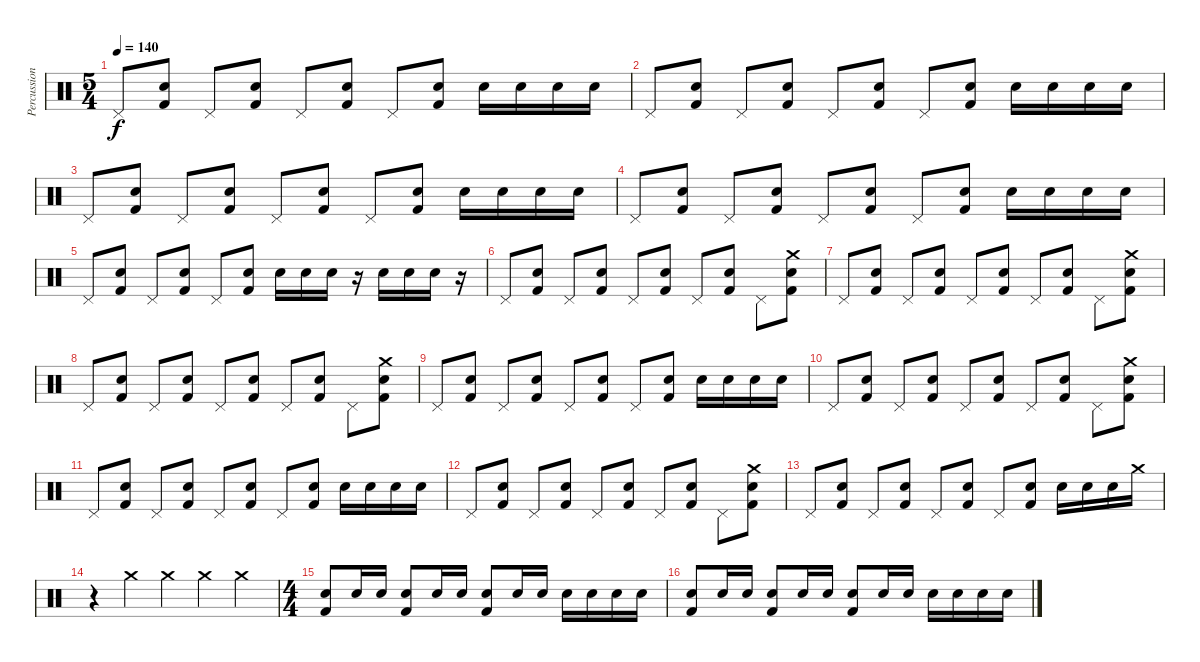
\track ("Percussion" "Percussion") {instrument percussion}
\staff {score}
\articulation defaults
\ts (5 4)
\tempo 140
\clef neutral
\ks c "Pedal Hi-Hat (hit)".8{dy f}
("Snare (hit) 2" "Kick (hit) 2").8 "Pedal Hi-Hat (hit)".8 ("Snare (hit) 2" "Kick (hit) 2").8 "Pedal Hi-Hat (hit)".8 ("Snare (hit) 2" "Kick (hit) 2").8 "Pedal Hi-Hat (hit)".8 ("Snare (hit) 2" "Kick (hit) 2").8 "Snare (hit) 2".16 "Snare (hit) 2".16 "Snare (hit) 2".16 "Snare (hit) 2".16 |
"Pedal Hi-Hat (hit)".8 ("Snare (hit) 2" "Kick (hit) 2").8 "Pedal Hi-Hat (hit)".8 ("Snare (hit) 2" "Kick (hit) 2").8 "Pedal Hi-Hat (hit)".8 ("Snare (hit) 2" "Kick (hit) 2").8 "Pedal Hi-Hat (hit)".8 ("Snare (hit) 2" "Kick (hit) 2").8 "Snare (hit) 2".16 "Snare (hit) 2".16 "Snare (hit) 2".16 "Snare (hit) 2".16 |
"Pedal Hi-Hat (hit)".8 ("Snare (hit) 2" "Kick (hit) 2").8 "Pedal Hi-Hat (hit)".8 ("Snare (hit) 2" "Kick (hit) 2").8 "Pedal Hi-Hat (hit)".8 ("Snare (hit) 2" "Kick (hit) 2").8 "Pedal Hi-Hat (hit)".8 ("Snare (hit) 2" "Kick (hit) 2").8 "Snare (hit) 2".16 "Snare (hit) 2".16 "Snare (hit) 2".16 "Snare (hit) 2".16 |
"Pedal Hi-Hat (hit)".8 ("Snare (hit) 2" "Kick (hit) 2").8 "Pedal Hi-Hat (hit)".8 ("Snare (hit) 2" "Kick (hit) 2").8 "Pedal Hi-Hat (hit)".8 ("Snare (hit) 2" "Kick (hit) 2").8 "Pedal Hi-Hat (hit)".8 ("Snare (hit) 2" "Kick (hit) 2").8 "Snare (hit) 2".16 "Snare (hit) 2".16 "Snare (hit) 2".16 "Snare (hit) 2".16 |
"Pedal Hi-Hat (hit)".8 ("Snare (hit) 2" "Kick (hit) 2").8 "Pedal Hi-Hat (hit)".8 ("Snare (hit) 2" "Kick (hit) 2").8 "Pedal Hi-Hat (hit)".8 ("Snare (hit) 2" "Kick (hit) 2").8 "Snare (hit) 2".16 "Snare (hit) 2".16 "Snare (hit) 2".16 r.16 "Snare (hit) 2".16 "Snare (hit) 2".16 "Snare (hit) 2".16 r.16 |
"Pedal Hi-Hat (hit)".8 ("Electric Snare (hit)" "Kick (hit) 2").8 "Pedal Hi-Hat (hit)".8 ("Electric Snare (hit)" "Kick (hit) 2").8 "Pedal Hi-Hat (hit)".8 ("Electric Snare (hit)" "Kick (hit) 2").8 "Pedal Hi-Hat (hit)".8 ("Electric Snare (hit)" "Kick (hit) 2").8 "Pedal Hi-Hat (hit)".8 ("Crash medium (hit)" "Electric Snare (hit)" "Kick (hit) 2").8 |
"Pedal Hi-Hat (hit)".8 ("Electric Snare (hit)" "Kick (hit) 2").8 "Pedal Hi-Hat (hit)".8 ("Electric Snare (hit)" "Kick (hit) 2").8 "Pedal Hi-Hat (hit)".8 ("Electric Snare (hit)" "Kick (hit) 2").8 "Pedal Hi-Hat (hit)".8 ("Electric Snare (hit)" "Kick (hit) 2").8 "Pedal Hi-Hat (hit)".8 ("Crash medium (hit)" "Electric Snare (hit)" "Kick (hit) 2").8 |
"Pedal Hi-Hat (hit)".8 ("Electric Snare (hit)" "Kick (hit) 2").8 "Pedal Hi-Hat (hit)".8 ("Electric Snare (hit)" "Kick (hit) 2").8 "Pedal Hi-Hat (hit)".8 ("Electric Snare (hit)" "Kick (hit) 2").8 "Pedal Hi-Hat (hit)".8 ("Electric Snare (hit)" "Kick (hit) 2").8 "Pedal Hi-Hat (hit)".8 ("Crash medium (hit)" "Electric Snare (hit)" "Kick (hit) 2").8 |
"Pedal Hi-Hat (hit)".8 ("Electric Snare (hit)" "Kick (hit) 2").8 "Pedal Hi-Hat (hit)".8 ("Electric Snare (hit)" "Kick (hit) 2").8 "Pedal Hi-Hat (hit)".8 ("Electric Snare (hit)" "Kick (hit) 2").8 "Pedal Hi-Hat (hit)".8 ("Electric Snare (hit)" "Kick (hit) 2").8 "Electric Snare (hit)".16 "Electric Snare (hit)".16 "Electric Snare (hit)".16 "Electric Snare (hit)".16 |
"Pedal Hi-Hat (hit)".8 ("Electric Snare (hit)" "Kick (hit) 2").8 "Pedal Hi-Hat (hit)".8 ("Electric Snare (hit)" "Kick (hit) 2").8 "Pedal Hi-Hat (hit)".8 ("Electric Snare (hit)" "Kick (hit) 2").8 "Pedal Hi-Hat (hit)".8 ("Electric Snare (hit)" "Kick (hit) 2").8 "Pedal Hi-Hat (hit)".8 ("Crash medium (hit)" "Electric Snare (hit)" "Kick (hit) 2").8 |
"Pedal Hi-Hat (hit)".8 ("Electric Snare (hit)" "Kick (hit) 2").8 "Pedal Hi-Hat (hit)".8 ("Electric Snare (hit)" "Kick (hit) 2").8 "Pedal Hi-Hat (hit)".8 ("Electric Snare (hit)" "Kick (hit) 2").8 "Pedal Hi-Hat (hit)".8 ("Electric Snare (hit)" "Kick (hit) 2").8 "Electric Snare (hit)".16 "Electric Snare (hit)".16 "Electric Snare (hit)".16 "Electric Snare (hit)".16 |
"Pedal Hi-Hat (hit)".8 ("Electric Snare (hit)" "Kick (hit) 2").8 "Pedal Hi-Hat (hit)".8 ("Electric Snare (hit)" "Kick (hit) 2").8 "Pedal Hi-Hat (hit)".8 ("Electric Snare (hit)" "Kick (hit) 2").8 "Pedal Hi-Hat (hit)".8 ("Electric Snare (hit)" "Kick (hit) 2").8 "Pedal Hi-Hat (hit)".8 ("Crash medium (hit)" "Electric Snare (hit)" "Kick (hit) 2").8 |
"Pedal Hi-Hat (hit)".8 ("Electric Snare (hit)" "Kick (hit) 2").8 "Pedal Hi-Hat (hit)".8 ("Electric Snare (hit)" "Kick (hit) 2").8 "Pedal Hi-Hat (hit)".8 ("Electric Snare (hit)" "Kick (hit) 2").8 "Pedal Hi-Hat (hit)".8 ("Electric Snare (hit)" "Kick (hit) 2").8 "Electric Snare (hit)".16 "Electric Snare (hit)".16 "Electric Snare (hit)".16 "Crash medium (hit)".16 |
r.4 "Crash medium (hit)".4 "Crash medium (hit)".4 "Crash medium (hit)".4 "Crash medium (hit)".4 |
\ts (4 4)
("Electric Snare (hit)" "Kick (hit) 2").8 "Electric Snare (hit)".16 "Electric Snare (hit)".16 ("Electric Snare (hit)" "Kick (hit) 2").8 "Electric Snare (hit)".16 "Electric Snare (hit)".16 ("Electric Snare (hit)" "Kick (hit) 2").8 "Electric Snare (hit)".16 "Electric Snare (hit)".16 "Electric Snare (hit)".16 "Electric Snare (hit)".16 "Electric Snare (hit)".16 "Electric Snare (hit)".16 |
("Electric Snare (hit)" "Kick (hit) 2").8 "Electric Snare (hit)".16 "Electric Snare (hit)".16 ("Electric Snare (hit)" "Kick (hit) 2").8 "Electric Snare (hit)".16 "Electric Snare (hit)".16 ("Electric Snare (hit)" "Kick (hit) 2").8 "Electric Snare (hit)".16 "Electric Snare (hit)".16 "Electric Snare (hit)".16 "Electric Snare (hit)".16 "Electric Snare (hit)".16 "Electric Snare (hit)".16
